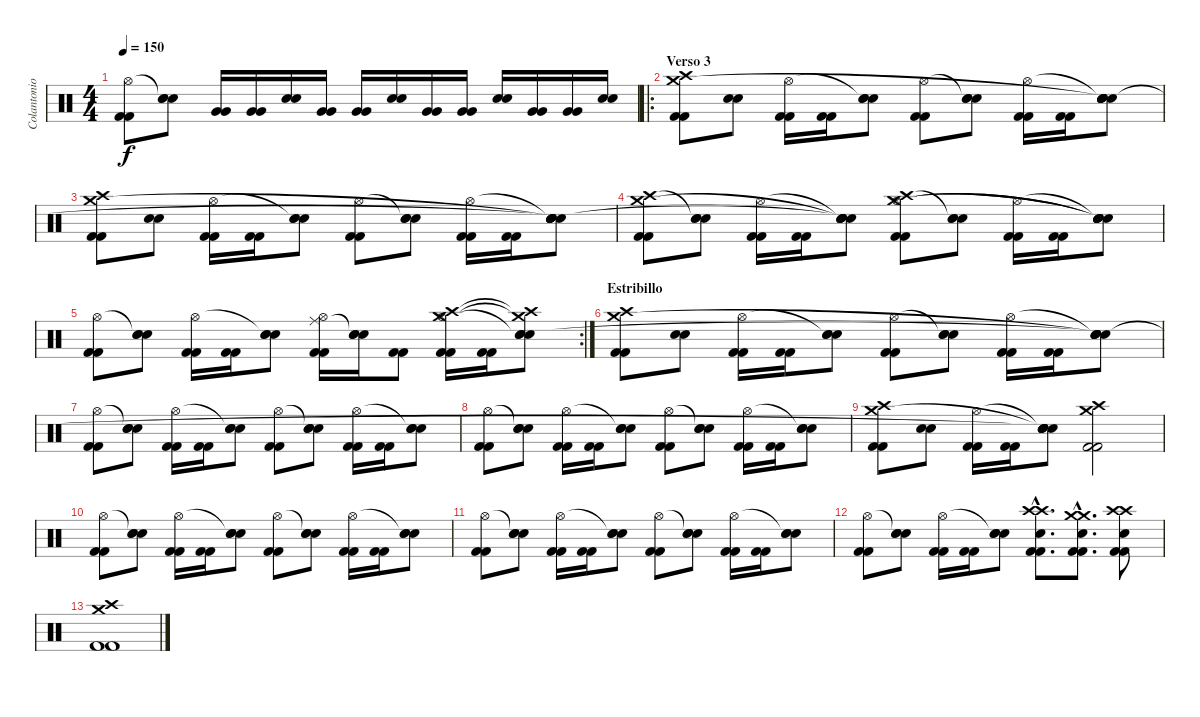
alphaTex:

\track ("Colantonio (Bateria)" "Colantonio") {instrument percussion}
\staff {score}
\articulation defaults
\ts (4 4)
\tempo 150
\clef neutral
\ks c
("Kick (hit) 2" "Kick (hit) 2" "Hi-Hat (open)").8{dy f} ("Snare (hit) 2" "Snare (hit) 2" "Snare (hit)"{t}).8 ("Very Low Tom (hit)" "Very Low Tom (hit)").16 ("Very Low Tom (hit)" "Very Low Tom (hit)").16 ("Snare (hit) 2" "Snare (hit) 2").16 ("Very Low Tom (hit)" "Very Low Tom (hit)").16 ("Very Low Tom (hit)" "Very Low Tom (hit)").16 ("Snare (hit) 2" "Snare (hit) 2").16 ("Very Low Tom (hit)" "Very Low Tom (hit)").16 ("Very Low Tom (hit)" "Very Low Tom (hit)").16 ("Snare (hit) 2" "Snare (hit) 2").16 ("Very Low Tom (hit)" "Very Low Tom (hit)").16 ("Very Low Tom (hit)" "Very Low Tom (hit)").16 ("Snare (hit) 2" "Snare (hit) 2").16 |
\ro
\section ("" "Verso 3")
("Kick (hit) 2" "Kick (hit) 2" "Crash high (hit)" "Crash medium (hit)").8 ("Snare (hit) 2" "Snare (hit) 2").8 ("Kick (hit) 2" "Kick (hit) 2" "Hi-Hat (open)").16 ("Kick (hit) 2" "Kick (hit) 2").16 ("Snare (hit) 2" "Snare (hit) 2" "Snare (hit)"{t}).8 ("Kick (hit) 2" "Kick (hit) 2" "Hi-Hat (open)").8 ("Snare (hit) 2" "Snare (hit) 2" "Snare (hit)"{t}).8 ("Kick (hit) 2" "Kick (hit) 2" "Hi-Hat (open)").16 ("Kick (hit) 2" "Kick (hit) 2").16 ("Snare (hit) 2" "Snare (hit) 2" "Snare (hit)"{t} "Snare (hit)"{t} "Snare (hit)").8 |
("Kick (hit) 2" "Kick (hit) 2" "Crash high (hit)" "Crash medium (hit)").8 ("Snare (hit) 2" "Snare (hit) 2").8 ("Kick (hit) 2" "Kick (hit) 2" "Hi-Hat (open)").16 ("Kick (hit) 2" "Kick (hit) 2").16 ("Snare (hit) 2" "Snare (hit) 2" "Snare (hit)"{t}).8 ("Kick (hit) 2" "Kick (hit) 2" "Hi-Hat (open)").8 ("Snare (hit) 2" "Snare (hit) 2" "Snare (hit)"{t}).8 ("Kick (hit) 2" "Kick (hit) 2" "Hi-Hat (open)").16 ("Kick (hit) 2" "Kick (hit) 2").16 ("Snare (hit) 2" "Snare (hit) 2" "Snare (hit)"{t} "Snare (hit)"{t} "Snare (hit)"{t}).8 |
("Kick (hit) 2" "Kick (hit) 2" "Crash high (hit)" "Crash medium (hit)").8 ("Snare (hit) 2" "Snare (hit) 2" "Snare (hit)"{t}).8 ("Kick (hit) 2" "Kick (hit) 2" "Hi-Hat (open)").16 ("Kick (hit) 2" "Kick (hit) 2").16 ("Snare (hit) 2" "Snare (hit) 2" "Snare (hit)"{t} "Snare (hit)"{t} "Snare (hit)"{t}).8 ("Kick (hit) 2" "Kick (hit) 2" "Crash high (hit)" "Hi-Hat (open)" "Crash medium (hit)").8 ("Snare (hit) 2" "Snare (hit) 2" "Snare (hit)"{t}).8 ("Kick (hit) 2" "Kick (hit) 2" "Hi-Hat (open)").16 ("Kick (hit) 2" "Kick (hit) 2").16 ("Snare (hit) 2" "Snare (hit) 2" "Snare (hit)"{t} "Snare (hit)"{t} "Snare (hit)"{t}).8 |
\rc 2
("Kick (hit) 2" "Kick (hit) 2" "Hi-Hat (open)").8 ("Snare (hit) 2" "Snare (hit) 2" "Snare (hit)"{t}).8 ("Kick (hit) 2" "Kick (hit) 2" "Hi-Hat (open)").16 ("Kick (hit) 2" "Kick (hit) 2").16 ("Snare (hit) 2" "Snare (hit) 2" "Snare (hit)"{t}).8 ("Kick (hit) 2" "Kick (hit) 2" "Ride (middle)" "Hi-Hat (open)").16 ("Snare (hit) 2" "Snare (hit) 2" "Snare (hit)"{t}).16 ("Kick (hit) 2" "Kick (hit) 2").8 ("Kick (hit) 2" "Kick (hit) 2" "Crash medium (hit)" "Crash high (hit)" "Hi-Hat (open)").16 ("Kick (hit) 2" "Kick (hit) 2").16 ("Snare (hit) 2" "Snare (hit) 2" "Crash medium (hit)"{t} "Crash high (hit)"{t} "Snare (hit)"{t}).8 |
\section ("" "Estribillo")
("Kick (hit) 2" "Kick (hit) 2" "Crash high (hit)" "Crash medium (hit)").8 ("Snare (hit) 2" "Snare (hit) 2").8 ("Kick (hit) 2" "Kick (hit) 2" "Hi-Hat (open)").16 ("Kick (hit) 2" "Kick (hit) 2").16 ("Snare (hit) 2" "Snare (hit) 2" "Snare (hit)"{t}).8 ("Kick (hit) 2" "Kick (hit) 2" "Hi-Hat (open)").8 ("Snare (hit) 2" "Snare (hit) 2" "Snare (hit)"{t}).8 ("Kick (hit) 2" "Kick (hit) 2" "Hi-Hat (open)").16 ("Kick (hit) 2" "Kick (hit) 2").16 ("Snare (hit) 2" "Snare (hit) 2" "Snare (hit)"{t} "Snare (hit)"{t} "Snare (hit)"{t}).8 |
("Kick (hit) 2" "Kick (hit) 2" "Hi-Hat (open)").8 ("Snare (hit) 2" "Snare (hit) 2" "Snare (hit)"{t}).8 ("Kick (hit) 2" "Kick (hit) 2" "Hi-Hat (open)").16 ("Kick (hit) 2" "Kick (hit) 2").16 ("Snare (hit) 2" "Snare (hit) 2" "Snare (hit)"{t}).8 ("Kick (hit) 2" "Kick (hit) 2" "Hi-Hat (open)").8 ("Snare (hit) 2" "Snare (hit) 2" "Snare (hit)"{t}).8 ("Kick (hit) 2" "Kick (hit) 2" "Hi-Hat (open)").16 ("Kick (hit) 2" "Kick (hit) 2").16 ("Snare (hit) 2" "Snare (hit) 2" "Snare (hit)"{t}).8 |
("Kick (hit) 2" "Kick (hit) 2" "Hi-Hat (open)").8 ("Snare (hit) 2" "Snare (hit) 2" "Snare (hit)"{t}).8 ("Kick (hit) 2" "Kick (hit) 2" "Hi-Hat (open)").16 ("Kick (hit) 2" "Kick (hit) 2").16 ("Snare (hit) 2" "Snare (hit) 2" "Snare (hit)"{t}).8 ("Kick (hit) 2" "Kick (hit) 2" "Hi-Hat (open)").8 ("Snare (hit) 2" "Snare (hit) 2" "Snare (hit)"{t}).8 ("Kick (hit) 2" "Kick (hit) 2" "Hi-Hat (open)").16 ("Kick (hit) 2" "Kick (hit) 2").16 ("Snare (hit) 2" "Snare (hit) 2" "Snare (hit)"{t}).8 |
("Kick (hit) 2" "Kick (hit) 2" "Crash high (hit)" "Crash medium (hit)").8 ("Snare (hit) 2" "Snare (hit) 2").8 ("Kick (hit) 2" "Kick (hit) 2" "Hi-Hat (open)").16 ("Kick (hit) 2" "Kick (hit) 2").16 ("Snare (hit) 2" "Snare (hit) 2" "Snare (hit)"{t} "Snare (hit)"{t} "Snare (hit)"{t}).8 ("Kick (hit) 2" "Kick (hit) 2" "Crash high (hit)" "Crash medium (hit)").2 |
("Kick (hit) 2" "Kick (hit) 2" "Hi-Hat (open)").8 ("Snare (hit) 2" "Snare (hit) 2" "Snare (hit)"{t}).8 ("Kick (hit) 2" "Kick (hit) 2" "Hi-Hat (open)").16 ("Kick (hit) 2" "Kick (hit) 2").16 ("Snare (hit) 2" "Snare (hit) 2" "Snare (hit)"{t}).8 ("Kick (hit) 2" "Kick (hit) 2" "Hi-Hat (open)").8 ("Snare (hit) 2" "Snare (hit) 2" "Snare (hit)"{t}).8 ("Kick (hit) 2" "Kick (hit) 2" "Hi-Hat (open)").16 ("Kick (hit) 2" "Kick (hit) 2").16 ("Snare (hit) 2" "Snare (hit) 2" "Snare (hit)"{t}).8 |
("Kick (hit) 2" "Kick (hit) 2" "Hi-Hat (open)").8 ("Snare (hit) 2" "Snare (hit) 2" "Snare (hit)"{t}).8 ("Kick (hit) 2" "Kick (hit) 2" "Hi-Hat (open)").16 ("Kick (hit) 2" "Kick (hit) 2").16 ("Snare (hit) 2" "Snare (hit) 2" "Snare (hit)"{t}).8 ("Kick (hit) 2" "Kick (hit) 2" "Hi-Hat (open)").8 ("Snare (hit) 2" "Snare (hit) 2" "Snare (hit)"{t}).8 ("Kick (hit) 2" "Kick (hit) 2" "Hi-Hat (open)").16 ("Kick (hit) 2" "Kick (hit) 2").16 ("Snare (hit) 2" "Snare (hit) 2" "Snare (hit)"{t}).8 |
("Kick (hit) 2" "Kick (hit) 2" "Hi-Hat (open)").8 ("Snare (hit) 2" "Snare (hit) 2" "Snare (hit)"{t}).8 ("Kick (hit) 2" "Kick (hit) 2" "Hi-Hat (open)").16 ("Kick (hit) 2" "Kick (hit) 2").16 ("Snare (hit) 2" "Snare (hit) 2" "Snare (hit)"{t}).8 ("Crash high (hit)"{hac} "Crash high (hit)"{hac} "Snare (hit) 2"{hac} "Kick (hit) 2"{hac} "Kick (hit) 2"{hac}).8{d} ("Crash medium (hit)"{hac} "Crash medium (hit)"{hac} "Snare (hit) 2"{hac} "Kick (hit) 2"{hac} "Kick (hit) 2"{hac}).8{d} ("Crash high (hit)" "Crash high (hit)" "Snare (hit) 2" "Kick (hit) 2" "Kick (hit) 2").8 |
("Kick (hit) 2" "Kick (hit) 2" "Crash medium (hit)" "Crash high (hit)").1
